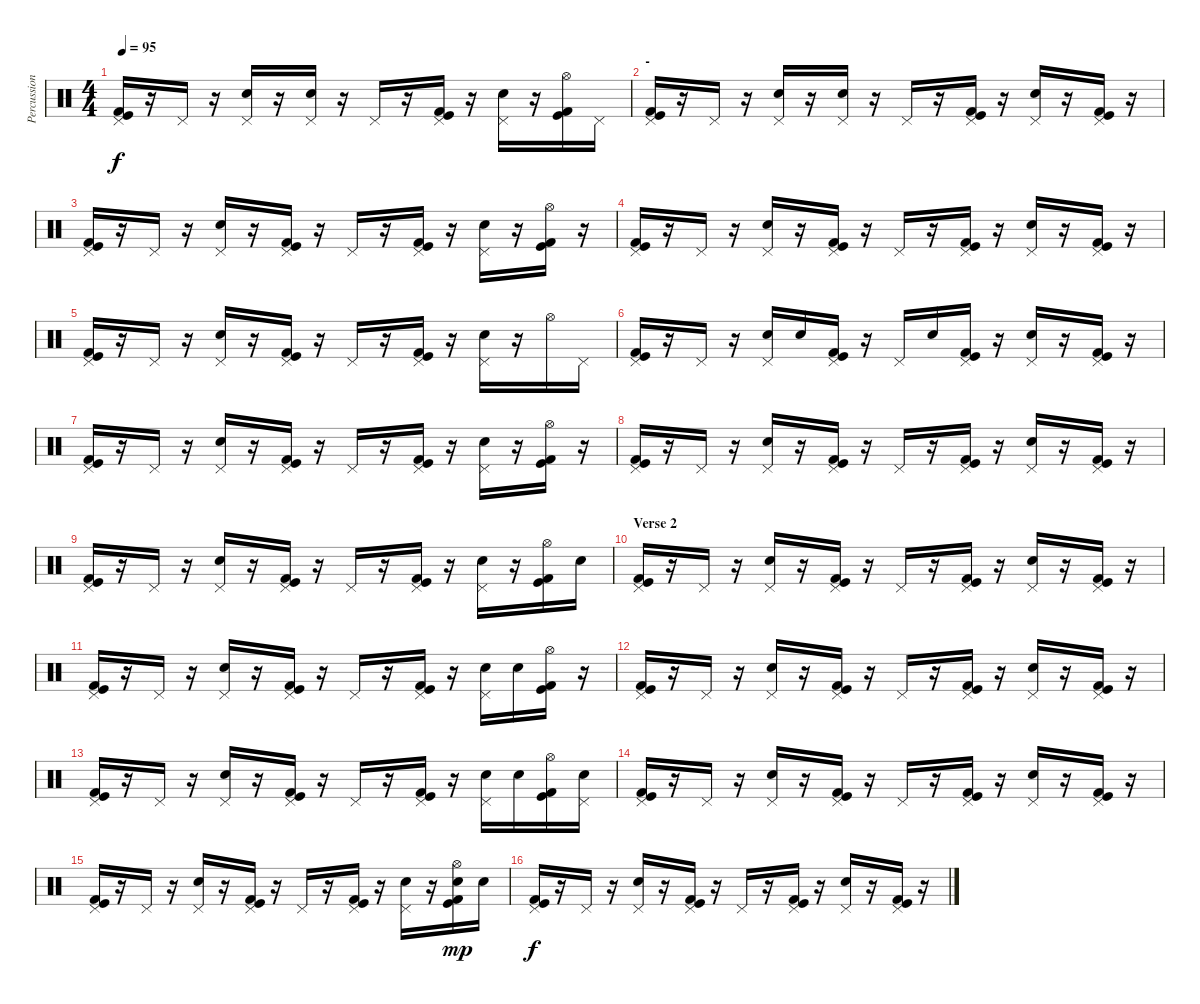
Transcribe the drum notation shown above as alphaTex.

\track ("Percussion" "Percussion") {instrument percussion}
\staff {score}
\articulation defaults
\ts (4 4)
\tempo 95
\clef neutral
\ks c
("Pedal Hi-Hat (hit)" "Kick (hit) 2" "Kick (hit)").16{dy f} r.16 "Pedal Hi-Hat (hit)".16 r.16 ("Pedal Hi-Hat (hit)" "Snare (hit) 2").16 r.16 ("Pedal Hi-Hat (hit)" "Snare (hit) 2").16 r.16 "Pedal Hi-Hat (hit)".16 r.16 ("Pedal Hi-Hat (hit)" "Kick (hit) 2" "Kick (hit)").16 r.16 ("Pedal Hi-Hat (hit)" "Snare (hit) 2").16 r.16 ("Hi-Hat (open)" "Kick (hit) 2" "Kick (hit)").16 "Pedal Hi-Hat (hit)".16 |
\section ("" "-")
("Pedal Hi-Hat (hit)" "Kick (hit) 2" "Kick (hit)").16 r.16 "Pedal Hi-Hat (hit)".16 r.16 ("Pedal Hi-Hat (hit)" "Snare (hit) 2").16 r.16 ("Pedal Hi-Hat (hit)" "Snare (hit) 2").16 r.16 "Pedal Hi-Hat (hit)".16 r.16 ("Pedal Hi-Hat (hit)" "Kick (hit) 2" "Kick (hit)").16 r.16 ("Pedal Hi-Hat (hit)" "Snare (hit) 2").16 r.16 ("Pedal Hi-Hat (hit)" "Kick (hit) 2" "Kick (hit)").16 r.16 |
("Pedal Hi-Hat (hit)" "Kick (hit) 2" "Kick (hit)").16 r.16 "Pedal Hi-Hat (hit)".16 r.16 ("Pedal Hi-Hat (hit)" "Snare (hit) 2").16 r.16 ("Pedal Hi-Hat (hit)" "Kick (hit) 2" "Kick (hit)").16 r.16 "Pedal Hi-Hat (hit)".16 r.16 ("Pedal Hi-Hat (hit)" "Kick (hit) 2" "Kick (hit)").16 r.16 ("Pedal Hi-Hat (hit)" "Snare (hit) 2").16 r.16 ("Hi-Hat (open)" "Kick (hit) 2" "Kick (hit)").16 r.16 |
("Pedal Hi-Hat (hit)" "Kick (hit) 2" "Kick (hit)").16 r.16 "Pedal Hi-Hat (hit)".16 r.16 ("Pedal Hi-Hat (hit)" "Snare (hit) 2").16 r.16 ("Pedal Hi-Hat (hit)" "Kick (hit) 2" "Kick (hit)").16 r.16 "Pedal Hi-Hat (hit)".16 r.16 ("Pedal Hi-Hat (hit)" "Kick (hit) 2" "Kick (hit)").16 r.16 ("Pedal Hi-Hat (hit)" "Snare (hit) 2").16 r.16 ("Pedal Hi-Hat (hit)" "Kick (hit) 2" "Kick (hit)").16 r.16 |
("Pedal Hi-Hat (hit)" "Kick (hit) 2" "Kick (hit)").16 r.16 "Pedal Hi-Hat (hit)".16 r.16 ("Pedal Hi-Hat (hit)" "Snare (hit) 2").16 r.16 ("Pedal Hi-Hat (hit)" "Kick (hit) 2" "Kick (hit)").16 r.16 "Pedal Hi-Hat (hit)".16 r.16 ("Pedal Hi-Hat (hit)" "Kick (hit) 2" "Kick (hit)").16 r.16 ("Pedal Hi-Hat (hit)" "Snare (hit) 2").16 r.16 "Hi-Hat (open)".16 "Pedal Hi-Hat (hit)".16 |
("Pedal Hi-Hat (hit)" "Kick (hit) 2" "Kick (hit)").16 r.16 "Pedal Hi-Hat (hit)".16 r.16 ("Pedal Hi-Hat (hit)" "Snare (hit) 2").16 "Snare (hit) 2".16 ("Pedal Hi-Hat (hit)" "Kick (hit) 2" "Kick (hit)").16 r.16 "Pedal Hi-Hat (hit)".16 "Snare (hit) 2".16 ("Pedal Hi-Hat (hit)" "Kick (hit) 2" "Kick (hit)").16 r.16 ("Pedal Hi-Hat (hit)" "Snare (hit) 2").16 r.16 ("Pedal Hi-Hat (hit)" "Kick (hit) 2" "Kick (hit)").16 r.16 |
("Pedal Hi-Hat (hit)" "Kick (hit) 2" "Kick (hit)").16 r.16 "Pedal Hi-Hat (hit)".16 r.16 ("Pedal Hi-Hat (hit)" "Snare (hit) 2").16 r.16 ("Pedal Hi-Hat (hit)" "Kick (hit) 2" "Kick (hit)").16 r.16 "Pedal Hi-Hat (hit)".16 r.16 ("Pedal Hi-Hat (hit)" "Kick (hit) 2" "Kick (hit)").16 r.16 ("Pedal Hi-Hat (hit)" "Snare (hit) 2").16 r.16 ("Hi-Hat (open)" "Kick (hit) 2" "Kick (hit)").16 r.16 |
("Pedal Hi-Hat (hit)" "Kick (hit) 2" "Kick (hit)").16 r.16 "Pedal Hi-Hat (hit)".16 r.16 ("Pedal Hi-Hat (hit)" "Snare (hit) 2").16 r.16 ("Pedal Hi-Hat (hit)" "Kick (hit) 2" "Kick (hit)").16 r.16 "Pedal Hi-Hat (hit)".16 r.16 ("Pedal Hi-Hat (hit)" "Kick (hit) 2" "Kick (hit)").16 r.16 ("Pedal Hi-Hat (hit)" "Snare (hit) 2").16 r.16 ("Pedal Hi-Hat (hit)" "Kick (hit) 2" "Kick (hit)").16 r.16 |
("Pedal Hi-Hat (hit)" "Kick (hit) 2" "Kick (hit)").16 r.16 "Pedal Hi-Hat (hit)".16 r.16 ("Pedal Hi-Hat (hit)" "Snare (hit) 2").16 r.16 ("Pedal Hi-Hat (hit)" "Kick (hit) 2" "Kick (hit)").16 r.16 "Pedal Hi-Hat (hit)".16 r.16 ("Pedal Hi-Hat (hit)" "Kick (hit) 2" "Kick (hit)").16 r.16 ("Pedal Hi-Hat (hit)" "Snare (hit) 2").16 r.16 ("Hi-Hat (open)" "Kick (hit) 2" "Kick (hit)").16 "Snare (hit) 2".16 |
\section ("" "Verse 2")
("Pedal Hi-Hat (hit)" "Kick (hit) 2" "Kick (hit)").16 r.16 "Pedal Hi-Hat (hit)".16 r.16 ("Pedal Hi-Hat (hit)" "Snare (hit) 2").16 r.16 ("Pedal Hi-Hat (hit)" "Kick (hit) 2" "Kick (hit)").16 r.16 "Pedal Hi-Hat (hit)".16 r.16 ("Pedal Hi-Hat (hit)" "Kick (hit) 2" "Kick (hit)").16 r.16 ("Pedal Hi-Hat (hit)" "Snare (hit) 2").16 r.16 ("Pedal Hi-Hat (hit)" "Kick (hit) 2" "Kick (hit)").16 r.16 |
("Pedal Hi-Hat (hit)" "Kick (hit) 2" "Kick (hit)").16 r.16 "Pedal Hi-Hat (hit)".16 r.16 ("Pedal Hi-Hat (hit)" "Snare (hit) 2").16 r.16 ("Pedal Hi-Hat (hit)" "Kick (hit) 2" "Kick (hit)").16 r.16 "Pedal Hi-Hat (hit)".16 r.16 ("Pedal Hi-Hat (hit)" "Kick (hit) 2" "Kick (hit)").16 r.16 ("Pedal Hi-Hat (hit)" "Snare (hit) 2").16 "Snare (hit) 2".16 ("Hi-Hat (open)" "Kick (hit) 2" "Kick (hit)").16 r.16 |
("Pedal Hi-Hat (hit)" "Kick (hit) 2" "Kick (hit)").16 r.16 "Pedal Hi-Hat (hit)".16 r.16 ("Pedal Hi-Hat (hit)" "Snare (hit) 2").16 r.16 ("Pedal Hi-Hat (hit)" "Kick (hit) 2" "Kick (hit)").16 r.16 "Pedal Hi-Hat (hit)".16 r.16 ("Pedal Hi-Hat (hit)" "Kick (hit) 2" "Kick (hit)").16 r.16 ("Pedal Hi-Hat (hit)" "Snare (hit) 2").16 r.16 ("Pedal Hi-Hat (hit)" "Kick (hit) 2" "Kick (hit)").16 r.16 |
("Pedal Hi-Hat (hit)" "Kick (hit) 2" "Kick (hit)").16 r.16 "Pedal Hi-Hat (hit)".16 r.16 ("Pedal Hi-Hat (hit)" "Snare (hit) 2").16 r.16 ("Pedal Hi-Hat (hit)" "Kick (hit) 2" "Kick (hit)").16 r.16 "Pedal Hi-Hat (hit)".16 r.16 ("Pedal Hi-Hat (hit)" "Kick (hit) 2" "Kick (hit)").16 r.16 ("Pedal Hi-Hat (hit)" "Snare (hit) 2").16 "Snare (hit) 2".16 ("Hi-Hat (open)" "Kick (hit) 2" "Kick (hit)").16 ("Pedal Hi-Hat (hit)" "Snare (hit) 2").16 |
("Pedal Hi-Hat (hit)" "Kick (hit) 2" "Kick (hit)").16 r.16 "Pedal Hi-Hat (hit)".16 r.16 ("Pedal Hi-Hat (hit)" "Snare (hit) 2").16 r.16 ("Pedal Hi-Hat (hit)" "Kick (hit) 2" "Kick (hit)").16 r.16 "Pedal Hi-Hat (hit)".16 r.16 ("Pedal Hi-Hat (hit)" "Kick (hit) 2" "Kick (hit)").16 r.16 ("Pedal Hi-Hat (hit)" "Snare (hit) 2").16 r.16 ("Pedal Hi-Hat (hit)" "Kick (hit) 2" "Kick (hit)").16 r.16 |
("Pedal Hi-Hat (hit)" "Kick (hit) 2" "Kick (hit)").16 r.16 "Pedal Hi-Hat (hit)".16 r.16 ("Pedal Hi-Hat (hit)" "Snare (hit) 2").16 r.16 ("Pedal Hi-Hat (hit)" "Kick (hit) 2" "Kick (hit)").16 r.16 "Pedal Hi-Hat (hit)".16 r.16 ("Pedal Hi-Hat (hit)" "Kick (hit) 2" "Kick (hit)").16 r.16 ("Pedal Hi-Hat (hit)" "Snare (hit) 2").16 r.16 ("Hi-Hat (open)" "Snare (hit) 2" "Kick (hit) 2" "Kick (hit)").16{dy mp} "Snare (hit) 2".16 |
("Pedal Hi-Hat (hit)" "Kick (hit) 2" "Kick (hit)").16{dy f} r.16 "Pedal Hi-Hat (hit)".16 r.16 ("Pedal Hi-Hat (hit)" "Snare (hit) 2").16 r.16 ("Pedal Hi-Hat (hit)" "Kick (hit) 2" "Kick (hit)").16 r.16 "Pedal Hi-Hat (hit)".16 r.16 ("Pedal Hi-Hat (hit)" "Kick (hit) 2" "Kick (hit)").16 r.16 ("Pedal Hi-Hat (hit)" "Snare (hit) 2").16 r.16 ("Pedal Hi-Hat (hit)" "Kick (hit) 2" "Kick (hit)").16 r.16
